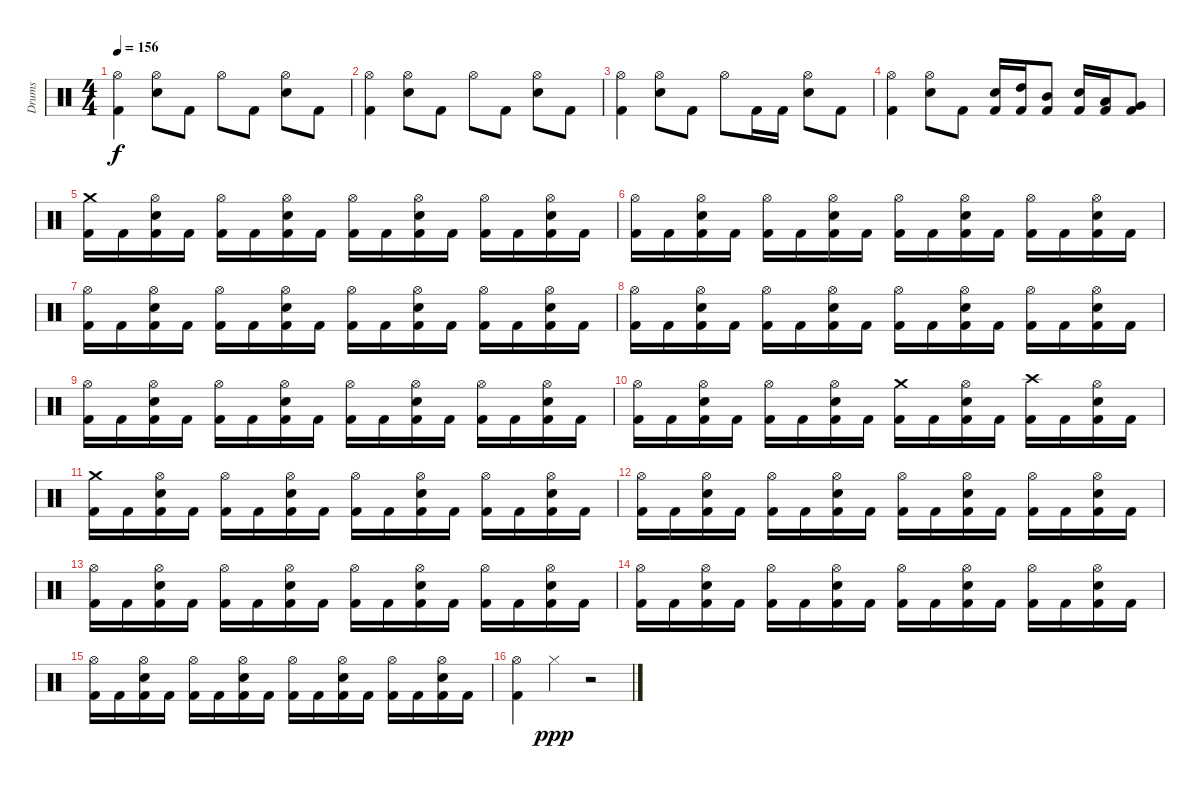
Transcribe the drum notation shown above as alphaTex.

\track ("Drums" "Drums") {instrument percussion}
\staff {score}
\articulation defaults
\ts (4 4)
\tempo 156
\clef neutral
\ks c
("Kick (hit) 2" "Hi-Hat (open)").4{dy f} ("Snare (hit) 2" "Hi-Hat (open)").8 "Kick (hit) 2".8 "Hi-Hat (open)".8 "Kick (hit) 2".8 ("Snare (hit) 2" "Hi-Hat (open)").8 "Kick (hit) 2".8 |
("Kick (hit) 2" "Hi-Hat (open)").4 ("Snare (hit) 2" "Hi-Hat (open)").8 "Kick (hit) 2".8 "Hi-Hat (open)".8 "Kick (hit) 2".8 ("Snare (hit) 2" "Hi-Hat (open)").8 "Kick (hit) 2".8 |
("Kick (hit) 2" "Hi-Hat (open)").4 ("Snare (hit) 2" "Hi-Hat (open)").8 "Kick (hit) 2".8 "Hi-Hat (open)".8 "Kick (hit) 2".16 "Kick (hit) 2".16 ("Snare (hit) 2" "Hi-Hat (open)").8 "Kick (hit) 2".8 |
("Kick (hit) 2" "Hi-Hat (open)").4 ("Snare (hit) 2" "Hi-Hat (open)").8 "Kick (hit) 2".8 ("Kick (hit) 2" "Snare (hit) 2").16 ("Kick (hit) 2" "High Tom (hit)").16 ("Kick (hit) 2" "Mid Tom (hit)").8 ("Kick (hit) 2" "Snare (hit) 2").16 ("Kick (hit) 2" "Low Tom (hit)").16 ("Kick (hit) 2" "Very Low Tom (hit)").8 |
\section ("" "")
("Kick (hit) 2" "Crash medium (hit)").16 "Kick (hit) 2".16 ("Kick (hit) 2" "Snare (hit) 2" "Hi-Hat (open)").16 "Kick (hit) 2".16 ("Kick (hit) 2" "Hi-Hat (open)").16 "Kick (hit) 2".16 ("Kick (hit) 2" "Snare (hit) 2" "Hi-Hat (open)").16 "Kick (hit) 2".16 ("Kick (hit) 2" "Hi-Hat (open)").16 "Kick (hit) 2".16 ("Kick (hit) 2" "Snare (hit) 2" "Hi-Hat (open)").16 "Kick (hit) 2".16 ("Kick (hit) 2" "Hi-Hat (open)").16 "Kick (hit) 2".16 ("Kick (hit) 2" "Snare (hit) 2" "Hi-Hat (open)").16 "Kick (hit) 2".16 |
("Kick (hit) 2" "Hi-Hat (open)").16 "Kick (hit) 2".16 ("Kick (hit) 2" "Snare (hit) 2" "Hi-Hat (open)").16 "Kick (hit) 2".16 ("Kick (hit) 2" "Hi-Hat (open)").16 "Kick (hit) 2".16 ("Kick (hit) 2" "Snare (hit) 2" "Hi-Hat (open)").16 "Kick (hit) 2".16 ("Kick (hit) 2" "Hi-Hat (open)").16 "Kick (hit) 2".16 ("Kick (hit) 2" "Snare (hit) 2" "Hi-Hat (open)").16 "Kick (hit) 2".16 ("Kick (hit) 2" "Hi-Hat (open)").16 "Kick (hit) 2".16 ("Kick (hit) 2" "Snare (hit) 2" "Hi-Hat (open)").16 "Kick (hit) 2".16 |
("Kick (hit) 2" "Hi-Hat (open)").16 "Kick (hit) 2".16 ("Kick (hit) 2" "Snare (hit) 2" "Hi-Hat (open)").16 "Kick (hit) 2".16 ("Kick (hit) 2" "Hi-Hat (open)").16 "Kick (hit) 2".16 ("Kick (hit) 2" "Snare (hit) 2" "Hi-Hat (open)").16 "Kick (hit) 2".16 ("Kick (hit) 2" "Hi-Hat (open)").16 "Kick (hit) 2".16 ("Kick (hit) 2" "Snare (hit) 2" "Hi-Hat (open)").16 "Kick (hit) 2".16 ("Kick (hit) 2" "Hi-Hat (open)").16 "Kick (hit) 2".16 ("Kick (hit) 2" "Snare (hit) 2" "Hi-Hat (open)").16 "Kick (hit) 2".16 |
("Kick (hit) 2" "Hi-Hat (open)").16 "Kick (hit) 2".16 ("Kick (hit) 2" "Snare (hit) 2" "Hi-Hat (open)").16 "Kick (hit) 2".16 ("Kick (hit) 2" "Hi-Hat (open)").16 "Kick (hit) 2".16 ("Kick (hit) 2" "Snare (hit) 2" "Hi-Hat (open)").16 "Kick (hit) 2".16 ("Kick (hit) 2" "Hi-Hat (open)").16 "Kick (hit) 2".16 ("Kick (hit) 2" "Snare (hit) 2" "Hi-Hat (open)").16 "Kick (hit) 2".16 ("Kick (hit) 2" "Hi-Hat (open)").16 "Kick (hit) 2".16 ("Kick (hit) 2" "Snare (hit) 2" "Hi-Hat (open)").16 "Kick (hit) 2".16 |
("Kick (hit) 2" "Hi-Hat (open)").16 "Kick (hit) 2".16 ("Kick (hit) 2" "Snare (hit) 2" "Hi-Hat (open)").16 "Kick (hit) 2".16 ("Kick (hit) 2" "Hi-Hat (open)").16 "Kick (hit) 2".16 ("Kick (hit) 2" "Snare (hit) 2" "Hi-Hat (open)").16 "Kick (hit) 2".16 ("Kick (hit) 2" "Hi-Hat (open)").16 "Kick (hit) 2".16 ("Kick (hit) 2" "Snare (hit) 2" "Hi-Hat (open)").16 "Kick (hit) 2".16 ("Kick (hit) 2" "Hi-Hat (open)").16 "Kick (hit) 2".16 ("Kick (hit) 2" "Snare (hit) 2" "Hi-Hat (open)").16 "Kick (hit) 2".16 |
("Kick (hit) 2" "Hi-Hat (open)").16 "Kick (hit) 2".16 ("Kick (hit) 2" "Snare (hit) 2" "Hi-Hat (open)").16 "Kick (hit) 2".16 ("Kick (hit) 2" "Hi-Hat (open)").16 "Kick (hit) 2".16 ("Kick (hit) 2" "Snare (hit) 2" "Hi-Hat (open)").16 "Kick (hit) 2".16 ("Kick (hit) 2" "Crash medium (hit)").16 "Kick (hit) 2".16 ("Kick (hit) 2" "Snare (hit) 2" "Hi-Hat (open)").16 "Kick (hit) 2".16 ("Kick (hit) 2" "Crash high (hit)").16 "Kick (hit) 2".16 ("Kick (hit) 2" "Snare (hit) 2" "Hi-Hat (open)").16 "Kick (hit) 2".16 |
("Kick (hit) 2" "Crash medium (hit)").16 "Kick (hit) 2".16 ("Kick (hit) 2" "Snare (hit) 2" "Hi-Hat (open)").16 "Kick (hit) 2".16 ("Kick (hit) 2" "Hi-Hat (open)").16 "Kick (hit) 2".16 ("Kick (hit) 2" "Snare (hit) 2" "Hi-Hat (open)").16 "Kick (hit) 2".16 ("Kick (hit) 2" "Hi-Hat (open)").16 "Kick (hit) 2".16 ("Kick (hit) 2" "Snare (hit) 2" "Hi-Hat (open)").16 "Kick (hit) 2".16 ("Kick (hit) 2" "Hi-Hat (open)").16 "Kick (hit) 2".16 ("Kick (hit) 2" "Snare (hit) 2" "Hi-Hat (open)").16 "Kick (hit) 2".16 |
("Kick (hit) 2" "Hi-Hat (open)").16 "Kick (hit) 2".16 ("Kick (hit) 2" "Snare (hit) 2" "Hi-Hat (open)").16 "Kick (hit) 2".16 ("Kick (hit) 2" "Hi-Hat (open)").16 "Kick (hit) 2".16 ("Kick (hit) 2" "Snare (hit) 2" "Hi-Hat (open)").16 "Kick (hit) 2".16 ("Kick (hit) 2" "Hi-Hat (open)").16 "Kick (hit) 2".16 ("Kick (hit) 2" "Snare (hit) 2" "Hi-Hat (open)").16 "Kick (hit) 2".16 ("Kick (hit) 2" "Hi-Hat (open)").16 "Kick (hit) 2".16 ("Kick (hit) 2" "Snare (hit) 2" "Hi-Hat (open)").16 "Kick (hit) 2".16 |
("Kick (hit) 2" "Hi-Hat (open)").16 "Kick (hit) 2".16 ("Kick (hit) 2" "Snare (hit) 2" "Hi-Hat (open)").16 "Kick (hit) 2".16 ("Kick (hit) 2" "Hi-Hat (open)").16 "Kick (hit) 2".16 ("Kick (hit) 2" "Snare (hit) 2" "Hi-Hat (open)").16 "Kick (hit) 2".16 ("Kick (hit) 2" "Hi-Hat (open)").16 "Kick (hit) 2".16 ("Kick (hit) 2" "Snare (hit) 2" "Hi-Hat (open)").16 "Kick (hit) 2".16 ("Kick (hit) 2" "Hi-Hat (open)").16 "Kick (hit) 2".16 ("Kick (hit) 2" "Snare (hit) 2" "Hi-Hat (open)").16 "Kick (hit) 2".16 |
("Kick (hit) 2" "Hi-Hat (open)").16 "Kick (hit) 2".16 ("Kick (hit) 2" "Snare (hit) 2" "Hi-Hat (open)").16 "Kick (hit) 2".16 ("Kick (hit) 2" "Hi-Hat (open)").16 "Kick (hit) 2".16 ("Kick (hit) 2" "Snare (hit) 2" "Hi-Hat (open)").16 "Kick (hit) 2".16 ("Kick (hit) 2" "Hi-Hat (open)").16 "Kick (hit) 2".16 ("Kick (hit) 2" "Snare (hit) 2" "Hi-Hat (open)").16 "Kick (hit) 2".16 ("Kick (hit) 2" "Hi-Hat (open)").16 "Kick (hit) 2".16 ("Kick (hit) 2" "Snare (hit) 2" "Hi-Hat (open)").16 "Kick (hit) 2".16 |
("Kick (hit) 2" "Hi-Hat (open)").16 "Kick (hit) 2".16 ("Kick (hit) 2" "Snare (hit) 2" "Hi-Hat (open)").16 "Kick (hit) 2".16 ("Kick (hit) 2" "Hi-Hat (open)").16 "Kick (hit) 2".16 ("Kick (hit) 2" "Snare (hit) 2" "Hi-Hat (open)").16 "Kick (hit) 2".16 ("Kick (hit) 2" "Hi-Hat (open)").16 "Kick (hit) 2".16 ("Kick (hit) 2" "Snare (hit) 2" "Hi-Hat (open)").16 "Kick (hit) 2".16 ("Kick (hit) 2" "Hi-Hat (open)").16 "Kick (hit) 2".16 ("Kick (hit) 2" "Snare (hit) 2" "Hi-Hat (open)").16 "Kick (hit) 2".16 |
("Kick (hit) 2" "Hi-Hat (open)").4 "Hi-Hat (closed)".4{dy ppp} r.2
